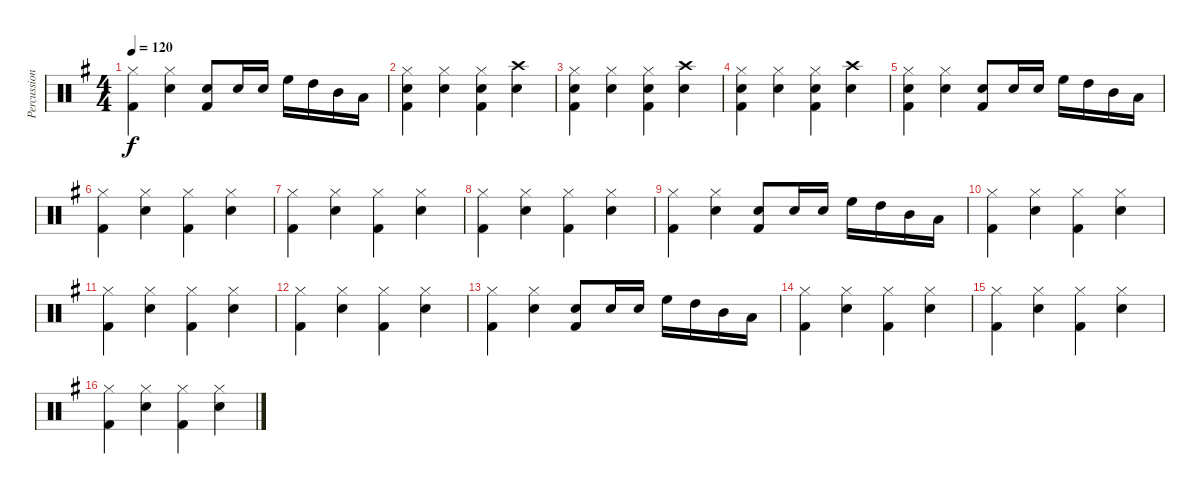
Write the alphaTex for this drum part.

\track ("Percussion" "Percussion") {instrument percussion}
\staff {score}
\articulation defaults
\ts (4 4)
\tempo 120
\clef neutral
\ks eminor
("Hi-Hat (closed)" "Kick (hit) 2").4{dy f} ("Hi-Hat (closed)" "Snare (hit) 2").4 ("Snare (hit) 2" "Kick (hit) 2").8 "Snare (hit) 2".16 "Snare (hit) 2".16 "High Floor Tom (hit)".16 "High Tom (hit)".16 "Mid Tom (hit)".16 "Low Tom (hit)".16 |
("Hi-Hat (closed)" "Snare (hit) 2" "Kick (hit) 2").4 ("Hi-Hat (closed)" "Snare (hit) 2").4 ("Hi-Hat (closed)" "Snare (hit) 2" "Kick (hit) 2").4 ("Crash high (hit)" "Snare (hit) 2").4 |
("Hi-Hat (closed)" "Snare (hit) 2" "Kick (hit) 2").4 ("Hi-Hat (closed)" "Snare (hit) 2").4 ("Hi-Hat (closed)" "Snare (hit) 2" "Kick (hit) 2").4 ("Crash high (hit)" "Snare (hit) 2").4 |
("Hi-Hat (closed)" "Snare (hit) 2" "Kick (hit) 2").4 ("Hi-Hat (closed)" "Snare (hit) 2").4 ("Hi-Hat (closed)" "Snare (hit) 2" "Kick (hit) 2").4 ("Crash high (hit)" "Snare (hit) 2").4 |
("Hi-Hat (closed)" "Snare (hit) 2" "Kick (hit) 2").4 ("Hi-Hat (closed)" "Snare (hit) 2").4 ("Snare (hit) 2" "Kick (hit) 2").8 "Snare (hit) 2".16 "Snare (hit) 2".16 "High Floor Tom (hit)".16 "High Tom (hit)".16 "Mid Tom (hit)".16 "Low Tom (hit)".16 |
("Hi-Hat (closed)" "Kick (hit) 2").4 ("Hi-Hat (closed)" "Snare (hit) 2").4 ("Hi-Hat (closed)" "Kick (hit) 2").4 ("Hi-Hat (closed)" "Snare (hit) 2").4 |
("Hi-Hat (closed)" "Kick (hit) 2").4 ("Hi-Hat (closed)" "Snare (hit) 2").4 ("Hi-Hat (closed)" "Kick (hit) 2").4 ("Hi-Hat (closed)" "Snare (hit) 2").4 |
("Hi-Hat (closed)" "Kick (hit) 2").4 ("Hi-Hat (closed)" "Snare (hit) 2").4 ("Hi-Hat (closed)" "Kick (hit) 2").4 ("Hi-Hat (closed)" "Snare (hit) 2").4 |
("Hi-Hat (closed)" "Kick (hit) 2").4 ("Hi-Hat (closed)" "Snare (hit) 2").4 ("Snare (hit) 2" "Kick (hit) 2").8 "Snare (hit) 2".16 "Snare (hit) 2".16 "High Floor Tom (hit)".16 "High Tom (hit)".16 "Mid Tom (hit)".16 "Low Tom (hit)".16 |
("Hi-Hat (closed)" "Kick (hit) 2").4 ("Hi-Hat (closed)" "Snare (hit) 2").4 ("Hi-Hat (closed)" "Kick (hit) 2").4 ("Hi-Hat (closed)" "Snare (hit) 2").4 |
("Hi-Hat (closed)" "Kick (hit) 2").4 ("Hi-Hat (closed)" "Snare (hit) 2").4 ("Hi-Hat (closed)" "Kick (hit) 2").4 ("Hi-Hat (closed)" "Snare (hit) 2").4 |
("Hi-Hat (closed)" "Kick (hit) 2").4 ("Hi-Hat (closed)" "Snare (hit) 2").4 ("Hi-Hat (closed)" "Kick (hit) 2").4 ("Hi-Hat (closed)" "Snare (hit) 2").4 |
("Hi-Hat (closed)" "Kick (hit) 2").4 ("Hi-Hat (closed)" "Snare (hit) 2").4 ("Snare (hit) 2" "Kick (hit) 2").8 "Snare (hit) 2".16 "Snare (hit) 2".16 "High Floor Tom (hit)".16 "High Tom (hit)".16 "Mid Tom (hit)".16 "Low Tom (hit)".16 |
("Hi-Hat (closed)" "Kick (hit) 2").4 ("Hi-Hat (closed)" "Snare (hit) 2").4 ("Hi-Hat (closed)" "Kick (hit) 2").4 ("Hi-Hat (closed)" "Snare (hit) 2").4 |
("Hi-Hat (closed)" "Kick (hit) 2").4 ("Hi-Hat (closed)" "Snare (hit) 2").4 ("Hi-Hat (closed)" "Kick (hit) 2").4 ("Hi-Hat (closed)" "Snare (hit) 2").4 |
("Hi-Hat (closed)" "Kick (hit) 2").4 ("Hi-Hat (closed)" "Snare (hit) 2").4 ("Hi-Hat (closed)" "Kick (hit) 2").4 ("Hi-Hat (closed)" "Snare (hit) 2").4
